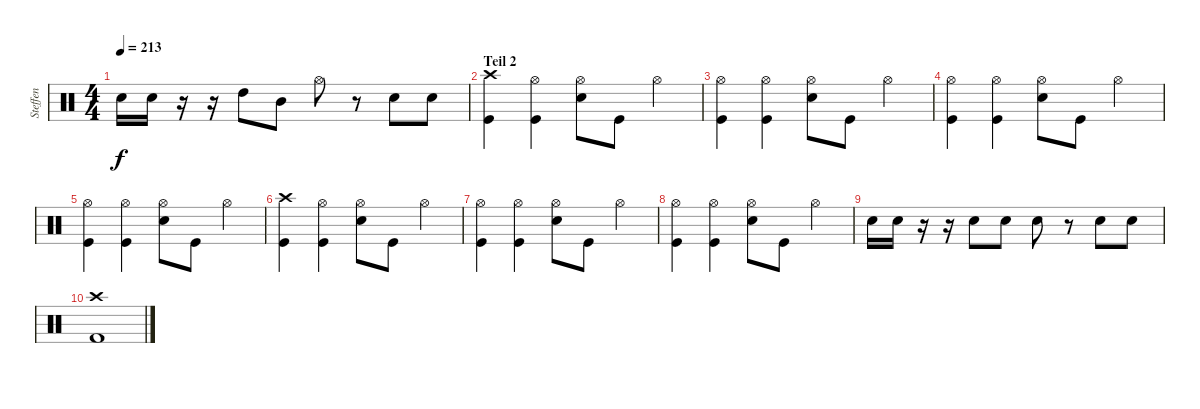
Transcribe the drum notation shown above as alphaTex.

\track ("Steffen" "Steffen") {instrument percussion}
\staff {score}
\articulation defaults
\ts (4 4)
\tempo 213
\clef neutral
\ks c "Snare (hit) 2".16{dy f} "Snare (hit) 2".16
r.16 r.16 "High Tom (hit)".8 "Mid Tom (hit)".8 "Hi-Hat (open)".8 r.8 "Snare (hit) 2".8 "Snare (hit) 2".8 |
\section ("" "Teil 2")
("Crash high (hit)" "Kick (hit)").4 ("Hi-Hat (open)" "Kick (hit)").4 ("Hi-Hat (open)" "Snare (hit) 2").8 "Kick (hit)".8 "Hi-Hat (open)".4 |
("Hi-Hat (open)" "Kick (hit)").4 ("Hi-Hat (open)" "Kick (hit)").4 ("Hi-Hat (open)" "Snare (hit) 2").8 "Kick (hit)".8 "Hi-Hat (open)".4 |
("Hi-Hat (open)" "Kick (hit)").4 ("Hi-Hat (open)" "Kick (hit)").4 ("Hi-Hat (open)" "Snare (hit) 2").8 "Kick (hit)".8 "Hi-Hat (open)".4 |
("Hi-Hat (open)" "Kick (hit)").4 ("Hi-Hat (open)" "Kick (hit)").4 ("Hi-Hat (open)" "Snare (hit) 2").8 "Kick (hit)".8 "Hi-Hat (open)".4 |
("Crash high (hit)" "Kick (hit)").4 ("Hi-Hat (open)" "Kick (hit)").4 ("Hi-Hat (open)" "Snare (hit) 2").8 "Kick (hit)".8 "Hi-Hat (open)".4 |
("Hi-Hat (open)" "Kick (hit)").4 ("Hi-Hat (open)" "Kick (hit)").4 ("Hi-Hat (open)" "Snare (hit) 2").8 "Kick (hit)".8 "Hi-Hat (open)".4 |
("Hi-Hat (open)" "Kick (hit)").4 ("Hi-Hat (open)" "Kick (hit)").4 ("Hi-Hat (open)" "Snare (hit) 2").8 "Kick (hit)".8 "Hi-Hat (open)".4 |
"Snare (hit) 2".16 "Snare (hit) 2".16 r.16 r.16 "Snare (hit) 2".8 "Snare (hit) 2".8 "Snare (hit) 2".8 r.8 "Snare (hit) 2".8 "Snare (hit) 2".8 |
("Crash high (hit)" "Kick (hit) 2").1
